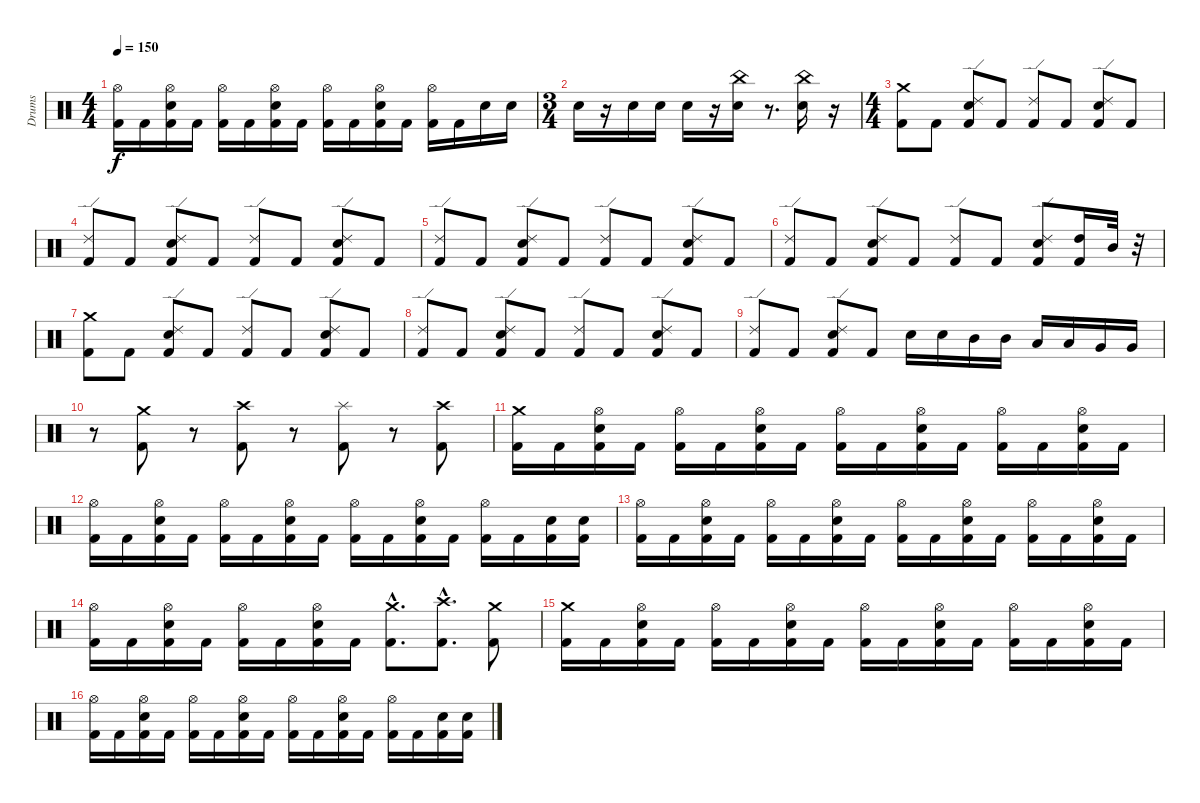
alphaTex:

\track ("Drums" "Drums") {instrument percussion}
\staff {score}
\articulation defaults
\ts (4 4)
\tempo 150
\clef neutral
\ks c
("Hi-Hat (open)" "Kick (hit) 2").16{dy f} "Kick (hit) 2".16 ("Kick (hit) 2" "Hi-Hat (open)" "Electric Snare (hit)").16 "Kick (hit) 2".16 ("Hi-Hat (open)" "Kick (hit) 2").16 "Kick (hit) 2".16 ("Hi-Hat (open)" "Electric Snare (hit)" "Kick (hit) 2").16 "Kick (hit) 2".16 ("Hi-Hat (open)" "Kick (hit) 2").16 "Kick (hit) 2".16 ("Hi-Hat (open)" "Electric Snare (hit)" "Kick (hit) 2").16 "Kick (hit) 2".16 ("Hi-Hat (open)" "Kick (hit) 2").16 "Kick (hit) 2".16 "Electric Snare (hit)".16 "Electric Snare (hit)".16 |
\ts (3 4)
"Electric Snare (hit)".16 r.16 "Electric Snare (hit)".16 "Electric Snare (hit)".16 "Electric Snare (hit)".16 r.16 ("China (hit)" "Electric Snare (hit)").16 r.8{d} ("China (hit)" "Electric Snare (hit)").16 r.16 |
\ts (4 4)
("Kick (hit) 2" "Crash medium (hit)").8 "Kick (hit) 2".8 ("Electric Snare (hit)" "Kick (hit) 2" "Ride (edge) 2").8 "Kick (hit) 2".8 ("Kick (hit) 2" "Ride (edge) 2").8 "Kick (hit) 2".8 ("Electric Snare (hit)" "Kick (hit) 2" "Ride (edge) 2").8 "Kick (hit) 2".8 |
("Ride (edge) 2" "Kick (hit) 2").8 "Kick (hit) 2".8 ("Electric Snare (hit)" "Kick (hit) 2" "Ride (edge) 2").8 "Kick (hit) 2".8 ("Kick (hit) 2" "Ride (edge) 2").8 "Kick (hit) 2".8 ("Electric Snare (hit)" "Kick (hit) 2" "Ride (edge) 2").8 "Kick (hit) 2".8 |
("Ride (edge) 2" "Kick (hit) 2").8 "Kick (hit) 2".8 ("Electric Snare (hit)" "Kick (hit) 2" "Ride (edge) 2").8 "Kick (hit) 2".8 ("Kick (hit) 2" "Ride (edge) 2").8 "Kick (hit) 2".8 ("Electric Snare (hit)" "Kick (hit) 2" "Ride (edge) 2").8 "Kick (hit) 2".8 |
("Ride (edge) 2" "Kick (hit) 2").8 "Kick (hit) 2".8 ("Electric Snare (hit)" "Kick (hit) 2" "Ride (edge) 2").8 "Kick (hit) 2".8 ("Kick (hit) 2" "Ride (edge) 2").8 "Kick (hit) 2".8 ("Electric Snare (hit)" "Kick (hit) 2" "Ride (edge) 2").8 ("High Tom (hit)" "Kick (hit) 2").16 "Mid Tom (hit)".32 r.32 |
("Kick (hit) 2" "Crash medium (hit)").8 "Kick (hit) 2".8 ("Electric Snare (hit)" "Kick (hit) 2" "Ride (edge) 2").8 "Kick (hit) 2".8 ("Kick (hit) 2" "Ride (edge) 2").8 "Kick (hit) 2".8 ("Electric Snare (hit)" "Kick (hit) 2" "Ride (edge) 2").8 "Kick (hit) 2".8 |
("Ride (edge) 2" "Kick (hit) 2").8 "Kick (hit) 2".8 ("Electric Snare (hit)" "Kick (hit) 2" "Ride (edge) 2").8 "Kick (hit) 2".8 ("Kick (hit) 2" "Ride (edge) 2").8 "Kick (hit) 2".8 ("Electric Snare (hit)" "Kick (hit) 2" "Ride (edge) 2").8 "Kick (hit) 2".8 |
("Ride (edge) 2" "Kick (hit) 2").8 "Kick (hit) 2".8 ("Electric Snare (hit)" "Kick (hit) 2" "Ride (edge) 2").8 "Kick (hit) 2".8 "Electric Snare (hit)".16 "Electric Snare (hit)".16 "Mid Tom (hit)".16 "Mid Tom (hit)".16 "Low Tom (hit)".16 "Low Tom (hit)".16 "Very Low Tom (hit)".16 "Very Low Tom (hit)".16 |
r.8 ("Crash medium (hit)" "Kick (hit) 2").8 r.8 ("Crash high (hit)" "Kick (hit) 2").8 r.8 ("Splash (hit)" "Kick (hit) 2").8 r.8 ("Crash high (hit)" "Kick (hit) 2").8 |
("Crash medium (hit)" "Kick (hit) 2").16 "Kick (hit) 2".16 ("Hi-Hat (open)" "Electric Snare (hit)" "Kick (hit) 2").16 "Kick (hit) 2".16 ("Hi-Hat (open)" "Kick (hit) 2").16 "Kick (hit) 2".16 ("Hi-Hat (open)" "Electric Snare (hit)" "Kick (hit) 2").16 "Kick (hit) 2".16 ("Hi-Hat (open)" "Kick (hit) 2").16 "Kick (hit) 2".16 ("Hi-Hat (open)" "Electric Snare (hit)" "Kick (hit) 2").16 "Kick (hit) 2".16 ("Hi-Hat (open)" "Kick (hit) 2").16 "Kick (hit) 2".16 ("Hi-Hat (open)" "Electric Snare (hit)" "Kick (hit) 2").16 "Kick (hit) 2".16 |
("Hi-Hat (open)" "Kick (hit) 2").16 "Kick (hit) 2".16 ("Hi-Hat (open)" "Electric Snare (hit)" "Kick (hit) 2").16 "Kick (hit) 2".16 ("Hi-Hat (open)" "Kick (hit) 2").16 "Kick (hit) 2".16 ("Hi-Hat (open)" "Electric Snare (hit)" "Kick (hit) 2").16 "Kick (hit) 2".16 ("Hi-Hat (open)" "Kick (hit) 2").16 "Kick (hit) 2".16 ("Hi-Hat (open)" "Electric Snare (hit)" "Kick (hit) 2").16 "Kick (hit) 2".16 ("Hi-Hat (open)" "Kick (hit) 2").16 "Kick (hit) 2".16 ("Electric Snare (hit)" "Kick (hit) 2").16 ("Electric Snare (hit)" "Kick (hit) 2").16 |
("Hi-Hat (open)" "Kick (hit) 2").16 "Kick (hit) 2".16 ("Hi-Hat (open)" "Electric Snare (hit)" "Kick (hit) 2").16 "Kick (hit) 2".16 ("Hi-Hat (open)" "Kick (hit) 2").16 "Kick (hit) 2".16 ("Hi-Hat (open)" "Electric Snare (hit)" "Kick (hit) 2").16 "Kick (hit) 2".16 ("Hi-Hat (open)" "Kick (hit) 2").16 "Kick (hit) 2".16 ("Hi-Hat (open)" "Electric Snare (hit)" "Kick (hit) 2").16 "Kick (hit) 2".16 ("Hi-Hat (open)" "Kick (hit) 2").16 "Kick (hit) 2".16 ("Hi-Hat (open)" "Electric Snare (hit)" "Kick (hit) 2").16 "Kick (hit) 2".16 |
("Hi-Hat (open)" "Kick (hit) 2").16 "Kick (hit) 2".16 ("Hi-Hat (open)" "Electric Snare (hit)" "Kick (hit) 2").16 "Kick (hit) 2".16 ("Hi-Hat (open)" "Kick (hit) 2").16 "Kick (hit) 2".16 ("Hi-Hat (open)" "Electric Snare (hit)" "Kick (hit) 2").16 "Kick (hit) 2".16 ("Crash medium (hit)" "Kick (hit) 2"{hac}).8{d} ("Crash high (hit)" "Kick (hit) 2"{hac}).8{d} ("Crash medium (hit)" "Kick (hit) 2").8 |
("Crash medium (hit)" "Kick (hit) 2").16 "Kick (hit) 2".16 ("Hi-Hat (open)" "Electric Snare (hit)" "Kick (hit) 2").16 "Kick (hit) 2".16 ("Hi-Hat (open)" "Kick (hit) 2").16 "Kick (hit) 2".16 ("Hi-Hat (open)" "Electric Snare (hit)" "Kick (hit) 2").16 "Kick (hit) 2".16 ("Hi-Hat (open)" "Kick (hit) 2").16 "Kick (hit) 2".16 ("Hi-Hat (open)" "Electric Snare (hit)" "Kick (hit) 2").16 "Kick (hit) 2".16 ("Hi-Hat (open)" "Kick (hit) 2").16 "Kick (hit) 2".16 ("Hi-Hat (open)" "Electric Snare (hit)" "Kick (hit) 2").16 "Kick (hit) 2".16 |
("Hi-Hat (open)" "Kick (hit) 2").16 "Kick (hit) 2".16 ("Hi-Hat (open)" "Electric Snare (hit)" "Kick (hit) 2").16 "Kick (hit) 2".16 ("Hi-Hat (open)" "Kick (hit) 2").16 "Kick (hit) 2".16 ("Hi-Hat (open)" "Electric Snare (hit)" "Kick (hit) 2").16 "Kick (hit) 2".16 ("Hi-Hat (open)" "Kick (hit) 2").16 "Kick (hit) 2".16 ("Hi-Hat (open)" "Electric Snare (hit)" "Kick (hit) 2").16 "Kick (hit) 2".16 ("Hi-Hat (open)" "Kick (hit) 2").16 "Kick (hit) 2".16 ("Electric Snare (hit)" "Kick (hit) 2").16 ("Electric Snare (hit)" "Kick (hit) 2").16
